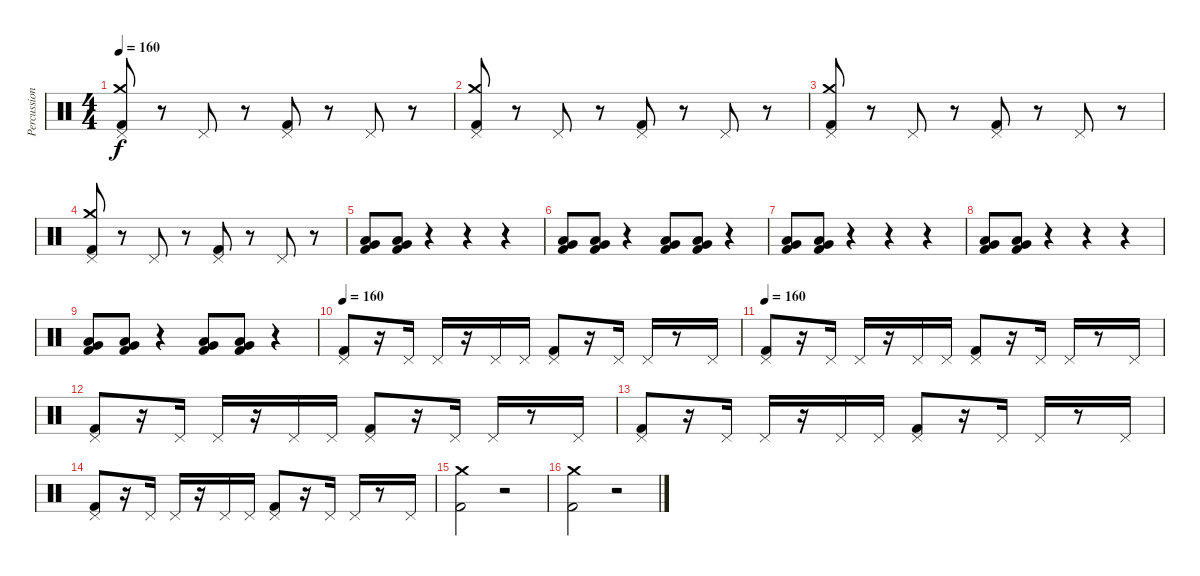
\track ("Percussion" "Percussion") {instrument percussion}
\staff {score}
\articulation defaults
\ts (4 4)
\tempo 160
\clef neutral
\ks c
("Pedal Hi-Hat (hit)" "Crash medium (hit)" "Kick (hit) 2").8{dy f} r.8 "Pedal Hi-Hat (hit)".8 r.8 ("Pedal Hi-Hat (hit)" "Kick (hit) 2").8 r.8 "Pedal Hi-Hat (hit)".8 r.8 |
("Pedal Hi-Hat (hit)" "Crash medium (hit)" "Kick (hit) 2").8 r.8 "Pedal Hi-Hat (hit)".8 r.8 ("Pedal Hi-Hat (hit)" "Kick (hit) 2").8 r.8 "Pedal Hi-Hat (hit)".8 r.8 |
("Pedal Hi-Hat (hit)" "Crash medium (hit)" "Kick (hit) 2").8 r.8 "Pedal Hi-Hat (hit)".8 r.8 ("Pedal Hi-Hat (hit)" "Kick (hit) 2").8 r.8 "Pedal Hi-Hat (hit)".8 r.8 |
("Pedal Hi-Hat (hit)" "Crash medium (hit)" "Kick (hit) 2").8 r.8 "Pedal Hi-Hat (hit)".8 r.8 ("Pedal Hi-Hat (hit)" "Kick (hit) 2").8 r.8 "Pedal Hi-Hat (hit)".8 r.8 |
("Kick (hit) 2" "Very Low Tom (hit)" "Low Tom (hit)").8 ("Kick (hit) 2" "Very Low Tom (hit)" "Low Tom (hit)").8 r.4 r.4 r.4 |
("Kick (hit) 2" "Very Low Tom (hit)" "Low Tom (hit)").8 ("Kick (hit) 2" "Very Low Tom (hit)" "Low Tom (hit)").8 r.4 ("Kick (hit) 2" "Very Low Tom (hit)" "Low Tom (hit)").8 ("Kick (hit) 2" "Very Low Tom (hit)" "Low Tom (hit)").8 r.4 |
("Kick (hit) 2" "Very Low Tom (hit)" "Low Tom (hit)").8 ("Kick (hit) 2" "Very Low Tom (hit)" "Low Tom (hit)").8 r.4 r.4 r.4 |
("Kick (hit) 2" "Very Low Tom (hit)" "Low Tom (hit)").8 ("Kick (hit) 2" "Very Low Tom (hit)" "Low Tom (hit)").8 r.4 r.4 r.4 |
("Kick (hit) 2" "Very Low Tom (hit)" "Low Tom (hit)").8 ("Kick (hit) 2" "Very Low Tom (hit)" "Low Tom (hit)").8 r.4 ("Kick (hit) 2" "Very Low Tom (hit)" "Low Tom (hit)").8 ("Kick (hit) 2" "Very Low Tom (hit)" "Low Tom (hit)").8 r.4 |
\tempo 160
("Pedal Hi-Hat (hit)" "Kick (hit) 2").8 r.16 "Pedal Hi-Hat (hit)".16 "Pedal Hi-Hat (hit)".16 r.16 "Pedal Hi-Hat (hit)".16 "Pedal Hi-Hat (hit)".16 ("Pedal Hi-Hat (hit)" "Kick (hit) 2").8 r.16 "Pedal Hi-Hat (hit)".16 "Pedal Hi-Hat (hit)".16 r.8 "Pedal Hi-Hat (hit)".16 |
\tempo 160
("Pedal Hi-Hat (hit)" "Kick (hit) 2").8 r.16 "Pedal Hi-Hat (hit)".16 "Pedal Hi-Hat (hit)".16 r.16 "Pedal Hi-Hat (hit)".16 "Pedal Hi-Hat (hit)".16 ("Pedal Hi-Hat (hit)" "Kick (hit) 2").8 r.16 "Pedal Hi-Hat (hit)".16 "Pedal Hi-Hat (hit)".16 r.8 "Pedal Hi-Hat (hit)".16 |
("Pedal Hi-Hat (hit)" "Kick (hit) 2").8 r.16 "Pedal Hi-Hat (hit)".16 "Pedal Hi-Hat (hit)".16 r.16 "Pedal Hi-Hat (hit)".16 "Pedal Hi-Hat (hit)".16 ("Pedal Hi-Hat (hit)" "Kick (hit) 2").8 r.16 "Pedal Hi-Hat (hit)".16 "Pedal Hi-Hat (hit)".16 r.8 "Pedal Hi-Hat (hit)".16 |
("Pedal Hi-Hat (hit)" "Kick (hit) 2").8 r.16 "Pedal Hi-Hat (hit)".16 "Pedal Hi-Hat (hit)".16 r.16 "Pedal Hi-Hat (hit)".16 "Pedal Hi-Hat (hit)".16 ("Pedal Hi-Hat (hit)" "Kick (hit) 2").8 r.16 "Pedal Hi-Hat (hit)".16 "Pedal Hi-Hat (hit)".16 r.8 "Pedal Hi-Hat (hit)".16 |
("Pedal Hi-Hat (hit)" "Kick (hit) 2").8 r.16 "Pedal Hi-Hat (hit)".16 "Pedal Hi-Hat (hit)".16 r.16 "Pedal Hi-Hat (hit)".16 "Pedal Hi-Hat (hit)".16 ("Pedal Hi-Hat (hit)" "Kick (hit) 2").8 r.16 "Pedal Hi-Hat (hit)".16 "Pedal Hi-Hat (hit)".16 r.8 "Pedal Hi-Hat (hit)".16 |
("Crash medium (hit)" "Kick (hit) 2").2 r.2 |
("Crash medium (hit)" "Kick (hit) 2").2 r.2
